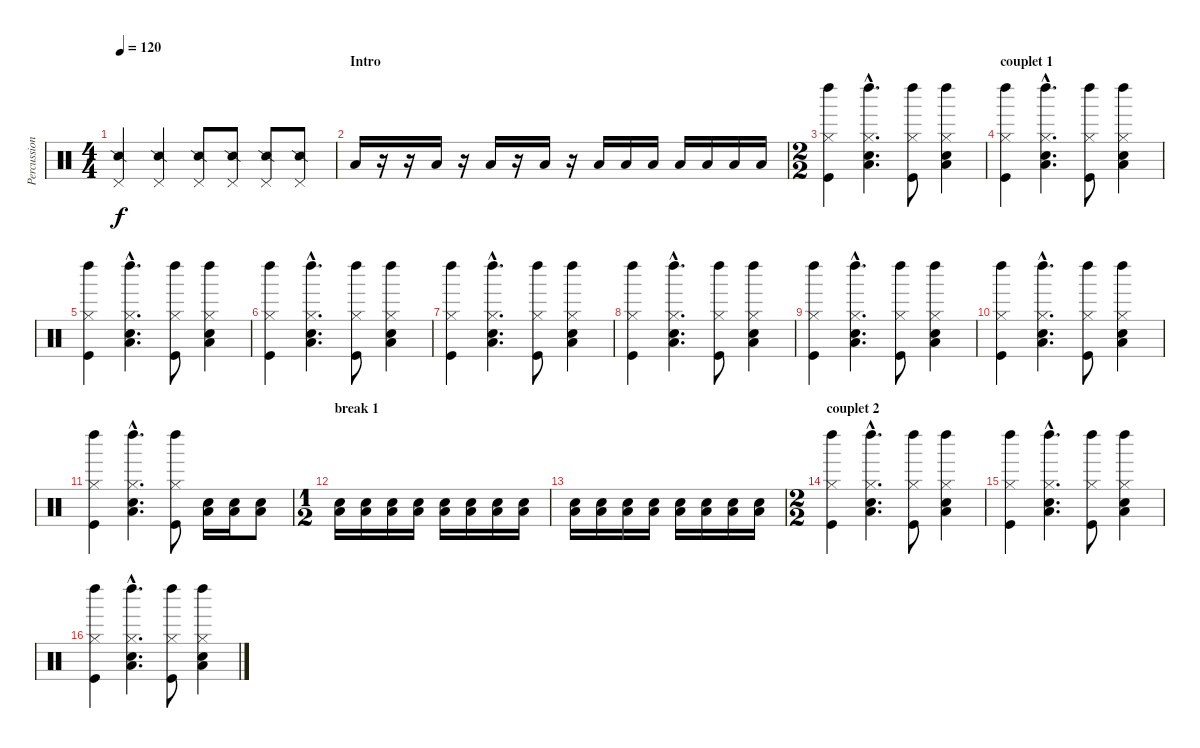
\track ("Percussions" "Percussion") {instrument percussion}
\staff {score}
\articulation defaults
\ts (4 4)
\tempo 120
\clef neutral
\ks c
("Snare (side stick) 2" "Pedal Hi-Hat (hit)").4{dy f} ("Snare (side stick) 2" "Pedal Hi-Hat (hit)").4 ("Snare (side stick) 2" "Pedal Hi-Hat (hit)").8 ("Snare (side stick) 2" "Pedal Hi-Hat (hit)").8 ("Snare (side stick) 2" "Pedal Hi-Hat (hit)").8 ("Snare (side stick) 2" "Pedal Hi-Hat (hit)").8 |
\section ("" "Intro")
"Low Floor Tom (hit)".16 r.16 r.16 "Low Floor Tom (hit)".16 r.16 "Low Floor Tom (hit)".16 r.16 "Low Floor Tom (hit)".16 r.16 "Low Floor Tom (hit)".16 "Low Floor Tom (hit)".16 "Low Floor Tom (hit)".16 "Low Floor Tom (hit)".16 "Low Floor Tom (hit)".16 "Low Floor Tom (hit)".16 "Low Floor Tom (hit)".16 |
\ts (2 2)
("Hi-Hat (closed)" "Left Maraca (hit)" "Kick (hit)").4 ("Hi-Hat (closed)"{hac} "Left Maraca (hit)"{hac} "Low Floor Tom (hit)"{hac} "Hand Clap (hit)"{hac}).4{d} ("Hi-Hat (closed)" "Left Maraca (hit)" "Kick (hit)").8 ("Hi-Hat (closed)" "Left Maraca (hit)" "Low Floor Tom (hit)" "Hand Clap (hit)").4 |
\section ("" "couplet 1")
("Hi-Hat (closed)" "Left Maraca (hit)" "Kick (hit)").4 ("Hi-Hat (closed)"{hac} "Left Maraca (hit)"{hac} "Low Floor Tom (hit)"{hac} "Hand Clap (hit)"{hac}).4{d} ("Hi-Hat (closed)" "Left Maraca (hit)" "Kick (hit)").8 ("Hi-Hat (closed)" "Left Maraca (hit)" "Low Floor Tom (hit)" "Hand Clap (hit)").4 |
("Hi-Hat (closed)" "Left Maraca (hit)" "Kick (hit)").4 ("Hi-Hat (closed)"{hac} "Left Maraca (hit)"{hac} "Low Floor Tom (hit)"{hac} "Hand Clap (hit)"{hac}).4{d} ("Hi-Hat (closed)" "Left Maraca (hit)" "Kick (hit)").8 ("Hi-Hat (closed)" "Left Maraca (hit)" "Low Floor Tom (hit)" "Hand Clap (hit)").4 |
("Hi-Hat (closed)" "Left Maraca (hit)" "Kick (hit)").4 ("Hi-Hat (closed)"{hac} "Left Maraca (hit)"{hac} "Low Floor Tom (hit)"{hac} "Hand Clap (hit)"{hac}).4{d} ("Hi-Hat (closed)" "Left Maraca (hit)" "Kick (hit)").8 ("Hi-Hat (closed)" "Left Maraca (hit)" "Low Floor Tom (hit)" "Hand Clap (hit)").4 |
("Hi-Hat (closed)" "Left Maraca (hit)" "Kick (hit)").4 ("Hi-Hat (closed)"{hac} "Left Maraca (hit)"{hac} "Low Floor Tom (hit)"{hac} "Hand Clap (hit)"{hac}).4{d} ("Hi-Hat (closed)" "Left Maraca (hit)" "Kick (hit)").8 ("Hi-Hat (closed)" "Left Maraca (hit)" "Low Floor Tom (hit)" "Hand Clap (hit)").4 |
("Hi-Hat (closed)" "Left Maraca (hit)" "Kick (hit)").4 ("Hi-Hat (closed)"{hac} "Left Maraca (hit)"{hac} "Low Floor Tom (hit)"{hac} "Hand Clap (hit)"{hac}).4{d} ("Hi-Hat (closed)" "Left Maraca (hit)" "Kick (hit)").8 ("Hi-Hat (closed)" "Left Maraca (hit)" "Low Floor Tom (hit)" "Hand Clap (hit)").4 |
("Hi-Hat (closed)" "Left Maraca (hit)" "Kick (hit)").4 ("Hi-Hat (closed)"{hac} "Left Maraca (hit)"{hac} "Low Floor Tom (hit)"{hac} "Hand Clap (hit)"{hac}).4{d} ("Hi-Hat (closed)" "Left Maraca (hit)" "Kick (hit)").8 ("Hi-Hat (closed)" "Left Maraca (hit)" "Low Floor Tom (hit)" "Hand Clap (hit)").4 |
("Hi-Hat (closed)" "Left Maraca (hit)" "Kick (hit)").4 ("Hi-Hat (closed)"{hac} "Left Maraca (hit)"{hac} "Low Floor Tom (hit)"{hac} "Hand Clap (hit)"{hac}).4{d} ("Hi-Hat (closed)" "Left Maraca (hit)" "Kick (hit)").8 ("Hi-Hat (closed)" "Left Maraca (hit)" "Low Floor Tom (hit)" "Hand Clap (hit)").4 |
("Hi-Hat (closed)" "Left Maraca (hit)" "Kick (hit)").4 ("Hi-Hat (closed)"{hac} "Left Maraca (hit)"{hac} "Low Floor Tom (hit)"{hac} "Hand Clap (hit)"{hac}).4{d} ("Hi-Hat (closed)" "Left Maraca (hit)" "Kick (hit)").8 ("Low Floor Tom (hit)" "Hand Clap (hit)").16 ("Low Floor Tom (hit)" "Hand Clap (hit)").16 ("Low Floor Tom (hit)" "Hand Clap (hit)").8 |
\ts (1 2)
\section ("" "break 1")
("Low Floor Tom (hit)" "Hand Clap (hit)").16 ("Low Floor Tom (hit)" "Hand Clap (hit)").16 ("Low Floor Tom (hit)" "Hand Clap (hit)").16 ("Low Floor Tom (hit)" "Hand Clap (hit)").16 ("Low Floor Tom (hit)" "Hand Clap (hit)").16 ("Low Floor Tom (hit)" "Hand Clap (hit)").16 ("Low Floor Tom (hit)" "Hand Clap (hit)").16 ("Low Floor Tom (hit)" "Hand Clap (hit)").16 |
("Low Floor Tom (hit)" "Hand Clap (hit)").16 ("Low Floor Tom (hit)" "Hand Clap (hit)").16 ("Low Floor Tom (hit)" "Hand Clap (hit)").16 ("Low Floor Tom (hit)" "Hand Clap (hit)").16 ("Low Floor Tom (hit)" "Hand Clap (hit)").16 ("Low Floor Tom (hit)" "Hand Clap (hit)").16 ("Low Floor Tom (hit)" "Hand Clap (hit)").16 ("Low Floor Tom (hit)" "Hand Clap (hit)").16 |
\ts (2 2)
\section ("" "couplet 2")
("Hi-Hat (closed)" "Left Maraca (hit)" "Kick (hit)").4 ("Hi-Hat (closed)"{hac} "Left Maraca (hit)"{hac} "Low Floor Tom (hit)"{hac} "Hand Clap (hit)"{hac}).4{d} ("Hi-Hat (closed)" "Left Maraca (hit)" "Kick (hit)").8 ("Hi-Hat (closed)" "Left Maraca (hit)" "Low Floor Tom (hit)" "Hand Clap (hit)").4 |
("Hi-Hat (closed)" "Left Maraca (hit)" "Kick (hit)").4 ("Hi-Hat (closed)"{hac} "Left Maraca (hit)"{hac} "Low Floor Tom (hit)"{hac} "Hand Clap (hit)"{hac}).4{d} ("Hi-Hat (closed)" "Left Maraca (hit)" "Kick (hit)").8 ("Hi-Hat (closed)" "Left Maraca (hit)" "Low Floor Tom (hit)" "Hand Clap (hit)").4 |
("Hi-Hat (closed)" "Left Maraca (hit)" "Kick (hit)").4 ("Hi-Hat (closed)"{hac} "Left Maraca (hit)"{hac} "Low Floor Tom (hit)"{hac} "Hand Clap (hit)"{hac}).4{d} ("Hi-Hat (closed)" "Left Maraca (hit)" "Kick (hit)").8 ("Hi-Hat (closed)" "Left Maraca (hit)" "Low Floor Tom (hit)" "Hand Clap (hit)").4
